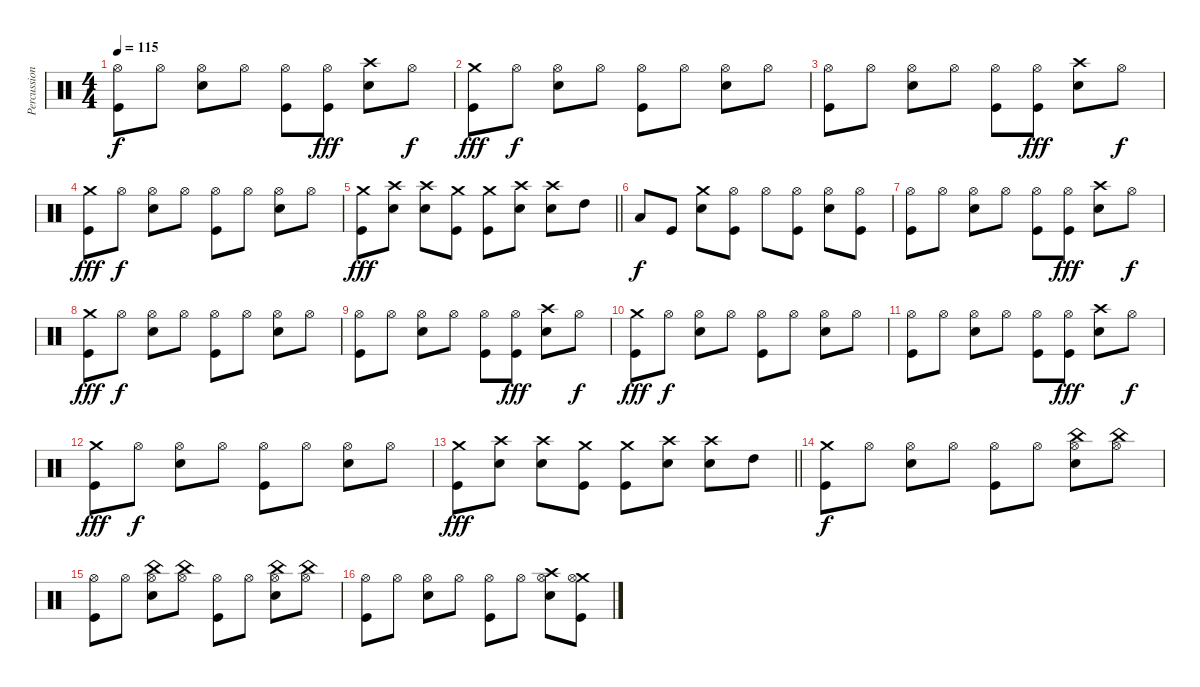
\track ("Percussion" "Percussion") {instrument percussion}
\staff {score}
\articulation defaults
\ts (4 4)
\tempo 115
\clef neutral
\ks c
("Hi-Hat (open)" "Kick (hit)").8{dy f} "Hi-Hat (open)".8 ("Hi-Hat (open)" "Electric Snare (hit)").8 "Hi-Hat (open)".8 ("Hi-Hat (open)" "Kick (hit)").8 ("Hi-Hat (open)" "Kick (hit)").8{dy fff} ("Crash high (hit)" "Electric Snare (hit)").8 "Hi-Hat (open)".8{dy f} |
("Crash medium (hit)" "Kick (hit)").8{dy fff} "Hi-Hat (open)".8{dy f} ("Hi-Hat (open)" "Electric Snare (hit)").8 "Hi-Hat (open)".8 ("Hi-Hat (open)" "Kick (hit)").8 "Hi-Hat (open)".8 ("Hi-Hat (open)" "Electric Snare (hit)").8 "Hi-Hat (open)".8 |
("Hi-Hat (open)" "Kick (hit)").8 "Hi-Hat (open)".8 ("Hi-Hat (open)" "Electric Snare (hit)").8 "Hi-Hat (open)".8 ("Hi-Hat (open)" "Kick (hit)").8 ("Hi-Hat (open)" "Kick (hit)").8{dy fff} ("Crash high (hit)" "Electric Snare (hit)").8 "Hi-Hat (open)".8{dy f} |
("Crash medium (hit)" "Kick (hit)").8{dy fff} "Hi-Hat (open)".8{dy f} ("Hi-Hat (open)" "Electric Snare (hit)").8 "Hi-Hat (open)".8 ("Hi-Hat (open)" "Kick (hit)").8 "Hi-Hat (open)".8 ("Hi-Hat (open)" "Electric Snare (hit)").8 "Hi-Hat (open)".8 |
\barLineRight lightlight
("Crash medium (hit)" "Kick (hit)").8{dy fff} ("Crash high (hit)" "Electric Snare (hit)").8 ("Crash high (hit)" "Electric Snare (hit)").8 ("Crash medium (hit)" "Kick (hit)").8 ("Crash medium (hit)" "Kick (hit)").8 ("Crash high (hit)" "Electric Snare (hit)").8 ("Crash high (hit)" "Electric Snare (hit)").8 "High Tom (hit)".8 |
"Low Tom (hit)".8{dy f} "Kick (hit)".8 ("Crash medium (hit)" "Electric Snare (hit)").8 ("Hi-Hat (open)" "Kick (hit)").8 "Hi-Hat (open)".8 ("Hi-Hat (open)" "Kick (hit)").8 ("Hi-Hat (open)" "Electric Snare (hit)").8 ("Hi-Hat (open)" "Kick (hit)").8 |
("Hi-Hat (open)" "Kick (hit)").8 "Hi-Hat (open)".8 ("Hi-Hat (open)" "Electric Snare (hit)").8 "Hi-Hat (open)".8 ("Hi-Hat (open)" "Kick (hit)").8 ("Hi-Hat (open)" "Kick (hit)").8{dy fff} ("Crash high (hit)" "Electric Snare (hit)").8 "Hi-Hat (open)".8{dy f} |
("Crash medium (hit)" "Kick (hit)").8{dy fff} "Hi-Hat (open)".8{dy f} ("Hi-Hat (open)" "Electric Snare (hit)").8 "Hi-Hat (open)".8 ("Hi-Hat (open)" "Kick (hit)").8 "Hi-Hat (open)".8 ("Hi-Hat (open)" "Electric Snare (hit)").8 "Hi-Hat (open)".8 |
("Hi-Hat (open)" "Kick (hit)").8 "Hi-Hat (open)".8 ("Hi-Hat (open)" "Electric Snare (hit)").8 "Hi-Hat (open)".8 ("Hi-Hat (open)" "Kick (hit)").8 ("Hi-Hat (open)" "Kick (hit)").8{dy fff} ("Crash high (hit)" "Electric Snare (hit)").8 "Hi-Hat (open)".8{dy f} |
("Crash medium (hit)" "Kick (hit)").8{dy fff} "Hi-Hat (open)".8{dy f} ("Hi-Hat (open)" "Electric Snare (hit)").8 "Hi-Hat (open)".8 ("Hi-Hat (open)" "Kick (hit)").8 "Hi-Hat (open)".8 ("Hi-Hat (open)" "Electric Snare (hit)").8 "Hi-Hat (open)".8 |
("Hi-Hat (open)" "Kick (hit)").8 "Hi-Hat (open)".8 ("Hi-Hat (open)" "Electric Snare (hit)").8 "Hi-Hat (open)".8 ("Hi-Hat (open)" "Kick (hit)").8 ("Hi-Hat (open)" "Kick (hit)").8{dy fff} ("Crash high (hit)" "Electric Snare (hit)").8 "Hi-Hat (open)".8{dy f} |
("Crash medium (hit)" "Kick (hit)").8{dy fff} "Hi-Hat (open)".8{dy f} ("Hi-Hat (open)" "Electric Snare (hit)").8 "Hi-Hat (open)".8 ("Hi-Hat (open)" "Kick (hit)").8 "Hi-Hat (open)".8 ("Hi-Hat (open)" "Electric Snare (hit)").8 "Hi-Hat (open)".8 |
\barLineRight lightlight
("Crash medium (hit)" "Kick (hit)").8{dy fff} ("Crash high (hit)" "Electric Snare (hit)").8 ("Crash high (hit)" "Electric Snare (hit)").8 ("Crash medium (hit)" "Kick (hit)").8 ("Crash medium (hit)" "Kick (hit)").8 ("Crash high (hit)" "Electric Snare (hit)").8 ("Crash high (hit)" "Electric Snare (hit)").8 "High Tom (hit)".8 |
("Crash medium (hit)" "Kick (hit)").8{dy f} "Hi-Hat (open)".8 ("Hi-Hat (open)" "Electric Snare (hit)").8 "Hi-Hat (open)".8 ("Hi-Hat (open)" "Kick (hit)").8 "Hi-Hat (open)".8 ("Hi-Hat (open)" "Electric Snare (hit)" "China (hit)").8 ("Hi-Hat (open)" "China (hit)").8 |
("Hi-Hat (open)" "Kick (hit)").8 "Hi-Hat (open)".8 ("Hi-Hat (open)" "Electric Snare (hit)" "China (hit)").8 ("Hi-Hat (open)" "China (hit)").8 ("Hi-Hat (open)" "Kick (hit)").8 "Hi-Hat (open)".8 ("Hi-Hat (open)" "Electric Snare (hit)" "China (hit)").8 ("Hi-Hat (open)" "China (hit)").8 |
("Hi-Hat (open)" "Kick (hit)").8 "Hi-Hat (open)".8 ("Hi-Hat (open)" "Electric Snare (hit)").8 "Hi-Hat (open)".8 ("Hi-Hat (open)" "Kick (hit)").8 "Hi-Hat (open)".8 ("Crash high (hit)" "Hi-Hat (open)" "Electric Snare (hit)").8 ("Crash medium (hit)" "Hi-Hat (open)" "Kick (hit)").8
